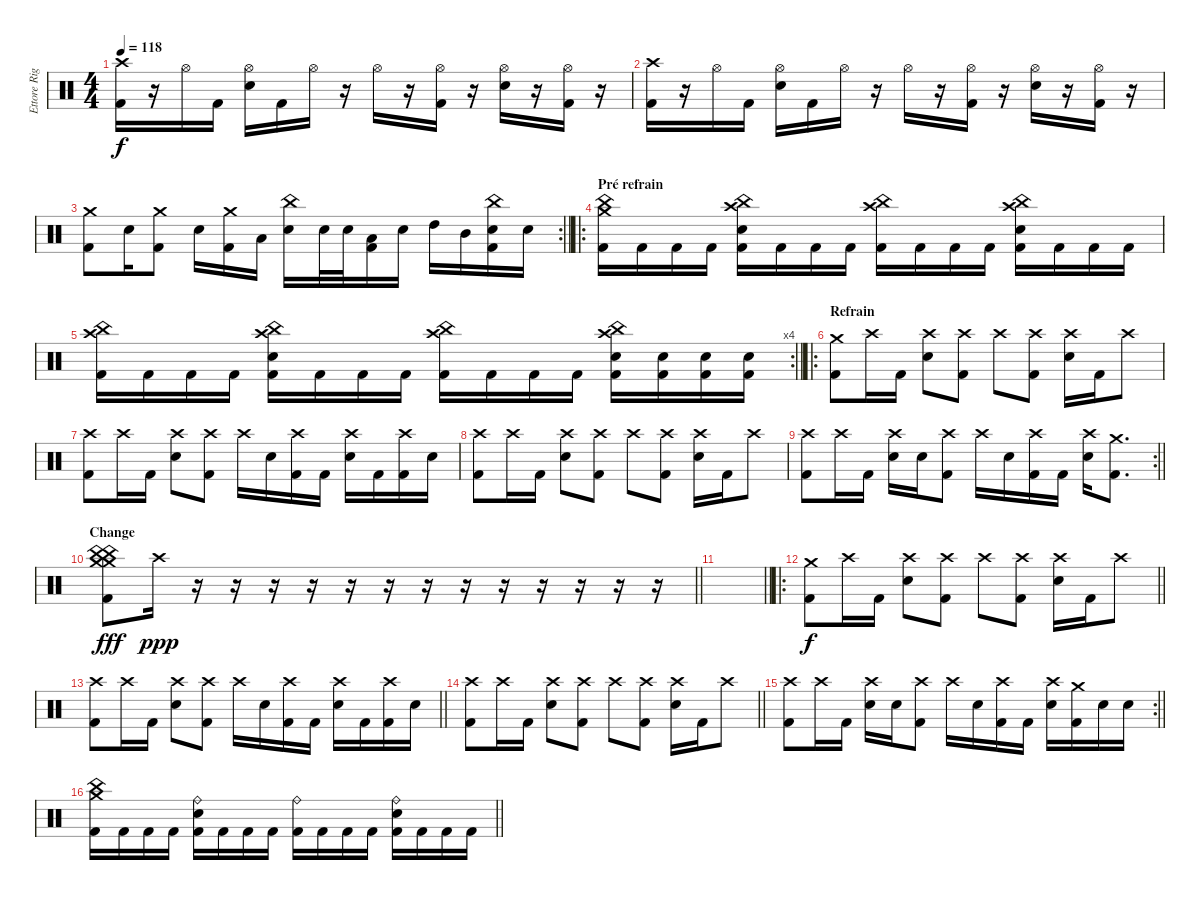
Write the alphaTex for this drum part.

\track ("Ettore Rigotti" "Ettore Rig") {instrument percussion}
\staff {score}
\articulation defaults
\ts (4 4)
\tempo 118
\clef neutral
\ks c
("Crash high (hit)" "Kick (hit) 2").16{dy f} r.16 "Hi-Hat (open)".16 "Kick (hit) 2".16 ("Hi-Hat (open)" "Electric Snare (hit)").16 "Kick (hit) 2".16 "Hi-Hat (open)".16 r.16 "Hi-Hat (open)".16 r.16 ("Hi-Hat (open)" "Kick (hit) 2").16 r.16 ("Hi-Hat (open)" "Electric Snare (hit)").16 r.16 ("Hi-Hat (open)" "Kick (hit) 2").16 r.16 |
("Crash high (hit)" "Kick (hit) 2").16 r.16 "Hi-Hat (open)".16 "Kick (hit) 2".16 ("Hi-Hat (open)" "Electric Snare (hit)").16 "Kick (hit) 2".16 "Hi-Hat (open)".16 r.16 "Hi-Hat (open)".16 r.16 ("Hi-Hat (open)" "Kick (hit) 2").16 r.16 ("Hi-Hat (open)" "Electric Snare (hit)").16 r.16 ("Hi-Hat (open)" "Kick (hit) 2").16 r.16 |
\rc 2
\barLineRight lightlight
("Crash medium (hit)" "Kick (hit) 2").8 "Electric Snare (hit)".16 ("Crash medium (hit)" "Kick (hit) 2").8 "Electric Snare (hit)".16 ("Crash medium (hit)" "Kick (hit) 2").16 "Low Tom (hit)".16 ("China (hit)" "Electric Snare (hit)").16 "Electric Snare (hit)".32 "Electric Snare (hit)".32 ("Low Tom (hit)" "Kick (hit) 2").16 "Electric Snare (hit)".16 "High Tom (hit)".16 "Mid Tom (hit)".16 ("China (hit)" "Electric Snare (hit)" "Kick (hit) 2").16 "Electric Snare (hit)".16 |
\ro
\section ("" "Pré refrain")
("Crash medium (hit)" "China (hit)" "Kick (hit) 2").16 "Kick (hit) 2".16 "Kick (hit) 2".16 "Kick (hit) 2".16 ("China (hit)" "Crash high (hit)" "Electric Snare (hit)" "Kick (hit) 2").16 "Kick (hit) 2".16 "Kick (hit) 2".16 "Kick (hit) 2".16 ("China (hit)" "Crash high (hit)" "Kick (hit) 2").16 "Kick (hit) 2".16 "Kick (hit) 2".16 "Kick (hit) 2".16 ("China (hit)" "Crash high (hit)" "Electric Snare (hit)" "Kick (hit) 2").16 "Kick (hit) 2".16 "Kick (hit) 2".16 "Kick (hit) 2".16 |
\rc 4
\barLineRight lightlight
("China (hit)" "Crash high (hit)" "Kick (hit) 2").16 "Kick (hit) 2".16 "Kick (hit) 2".16 "Kick (hit) 2".16 ("China (hit)" "Crash high (hit)" "Electric Snare (hit)" "Kick (hit) 2").16 "Kick (hit) 2".16 "Kick (hit) 2".16 "Kick (hit) 2".16 ("China (hit)" "Crash high (hit)" "Kick (hit) 2").16 "Kick (hit) 2".16 "Kick (hit) 2".16 "Kick (hit) 2".16 ("China (hit)" "Crash high (hit)" "Electric Snare (hit)" "Kick (hit) 2").16 ("Electric Snare (hit)" "Kick (hit) 2").16 ("Electric Snare (hit)" "Kick (hit) 2").16 ("Electric Snare (hit)" "Kick (hit) 2").16 |
\ro
\section ("" "Refrain")
("Crash medium (hit)" "Kick (hit) 2").8 "Crash high (hit)".16 "Kick (hit) 2".16 ("Crash high (hit)" "Electric Snare (hit)").8 ("Crash high (hit)" "Kick (hit) 2").8 "Crash high (hit)".8 ("Crash high (hit)" "Kick (hit) 2").8 ("Crash high (hit)" "Electric Snare (hit)").16 "Kick (hit) 2".16 "Crash high (hit)".8 |
("Crash high (hit)" "Kick (hit) 2").8 "Crash high (hit)".16 "Kick (hit) 2".16 ("Crash high (hit)" "Electric Snare (hit)").8 ("Crash high (hit)" "Kick (hit) 2").8 "Crash high (hit)".16 "Electric Snare (hit)".16 ("Crash high (hit)" "Kick (hit) 2").16 "Kick (hit) 2".16 ("Crash high (hit)" "Electric Snare (hit)").16 "Kick (hit) 2".16 ("Crash high (hit)" "Kick (hit) 2").16 "Electric Snare (hit)".16 |
("Crash high (hit)" "Kick (hit) 2").8 "Crash high (hit)".16 "Kick (hit) 2".16 ("Crash high (hit)" "Electric Snare (hit)").8 ("Crash high (hit)" "Kick (hit) 2").8 "Crash high (hit)".8 ("Crash high (hit)" "Kick (hit) 2").8 ("Crash high (hit)" "Electric Snare (hit)").16 "Kick (hit) 2".16 "Crash high (hit)".8 |
\rc 2
\barLineRight lightlight
("Crash high (hit)" "Kick (hit) 2").8 "Crash high (hit)".16 "Kick (hit) 2".16 ("Crash high (hit)" "Electric Snare (hit)").16 "Electric Snare (hit)".16 ("Crash high (hit)" "Kick (hit) 2").8 "Crash high (hit)".16 "Electric Snare (hit)".16 ("Crash high (hit)" "Kick (hit) 2").16 "Kick (hit) 2".16 ("Crash high (hit)" "Electric Snare (hit)").16 ("Crash medium (hit)" "Kick (hit) 2").8{d} |
\section ("" "Change")
\barLineRight lightlight
("China (hit)" "China (hit)" "Crash medium (hit)" "Crash medium (hit)" "Kick (hit) 2").8{dy fff} "Crash high (hit)".16{dy ppp} r.16 r.16 r.16 r.16 r.16 r.16 r.16 r.16 r.16 r.16 r.16 r.16 r.16 |
\barLineRight lightlight
|
\ro
\barLineRight lightlight
("Crash medium (hit)" "Kick (hit) 2").8{dy f} "Crash high (hit)".16 "Kick (hit) 2".16 ("Crash high (hit)" "Electric Snare (hit)").8 ("Crash high (hit)" "Kick (hit) 2").8 "Crash high (hit)".8 ("Crash high (hit)" "Kick (hit) 2").8 ("Crash high (hit)" "Electric Snare (hit)").16 "Kick (hit) 2".16 "Crash high (hit)".8 |
\barLineRight lightlight
("Crash high (hit)" "Kick (hit) 2").8 "Crash high (hit)".16 "Kick (hit) 2".16 ("Crash high (hit)" "Electric Snare (hit)").8 ("Crash high (hit)" "Kick (hit) 2").8 "Crash high (hit)".16 "Electric Snare (hit)".16 ("Crash high (hit)" "Kick (hit) 2").16 "Kick (hit) 2".16 ("Crash high (hit)" "Electric Snare (hit)").16 "Kick (hit) 2".16 ("Crash high (hit)" "Kick (hit) 2").16 "Electric Snare (hit)".16 |
\barLineRight lightlight
("Crash high (hit)" "Kick (hit) 2").8 "Crash high (hit)".16 "Kick (hit) 2".16 ("Crash high (hit)" "Electric Snare (hit)").8 ("Crash high (hit)" "Kick (hit) 2").8 "Crash high (hit)".8 ("Crash high (hit)" "Kick (hit) 2").8 ("Crash high (hit)" "Electric Snare (hit)").16 "Kick (hit) 2".16 "Crash high (hit)".8 |
\rc 2
\barLineRight lightlight
("Crash high (hit)" "Kick (hit) 2").8 "Crash high (hit)".16 "Kick (hit) 2".16 ("Crash high (hit)" "Electric Snare (hit)").16 "Electric Snare (hit)".16 ("Crash high (hit)" "Kick (hit) 2").8 "Crash high (hit)".16 "Electric Snare (hit)".16 ("Crash high (hit)" "Kick (hit) 2").16 "Kick (hit) 2".16 ("Crash high (hit)" "Electric Snare (hit)").16 ("Crash medium (hit)" "Kick (hit) 2").16 "Electric Snare (hit)".16 "Electric Snare (hit)".16 |
\barLineRight lightlight
("Crash medium (hit)" "China (hit)" "Kick (hit) 2").16 "Kick (hit) 2".16 "Kick (hit) 2".16 "Kick (hit) 2".16 ("Ride (bell)" "Electric Snare (hit)" "Kick (hit) 2").16 "Kick (hit) 2".16 "Kick (hit) 2".16 "Kick (hit) 2".16 ("Ride (bell)" "Kick (hit) 2").16 "Kick (hit) 2".16 "Kick (hit) 2".16 "Kick (hit) 2".16 ("Ride (bell)" "Electric Snare (hit)" "Kick (hit) 2").16 "Kick (hit) 2".16 "Kick (hit) 2".16 "Kick (hit) 2".16
